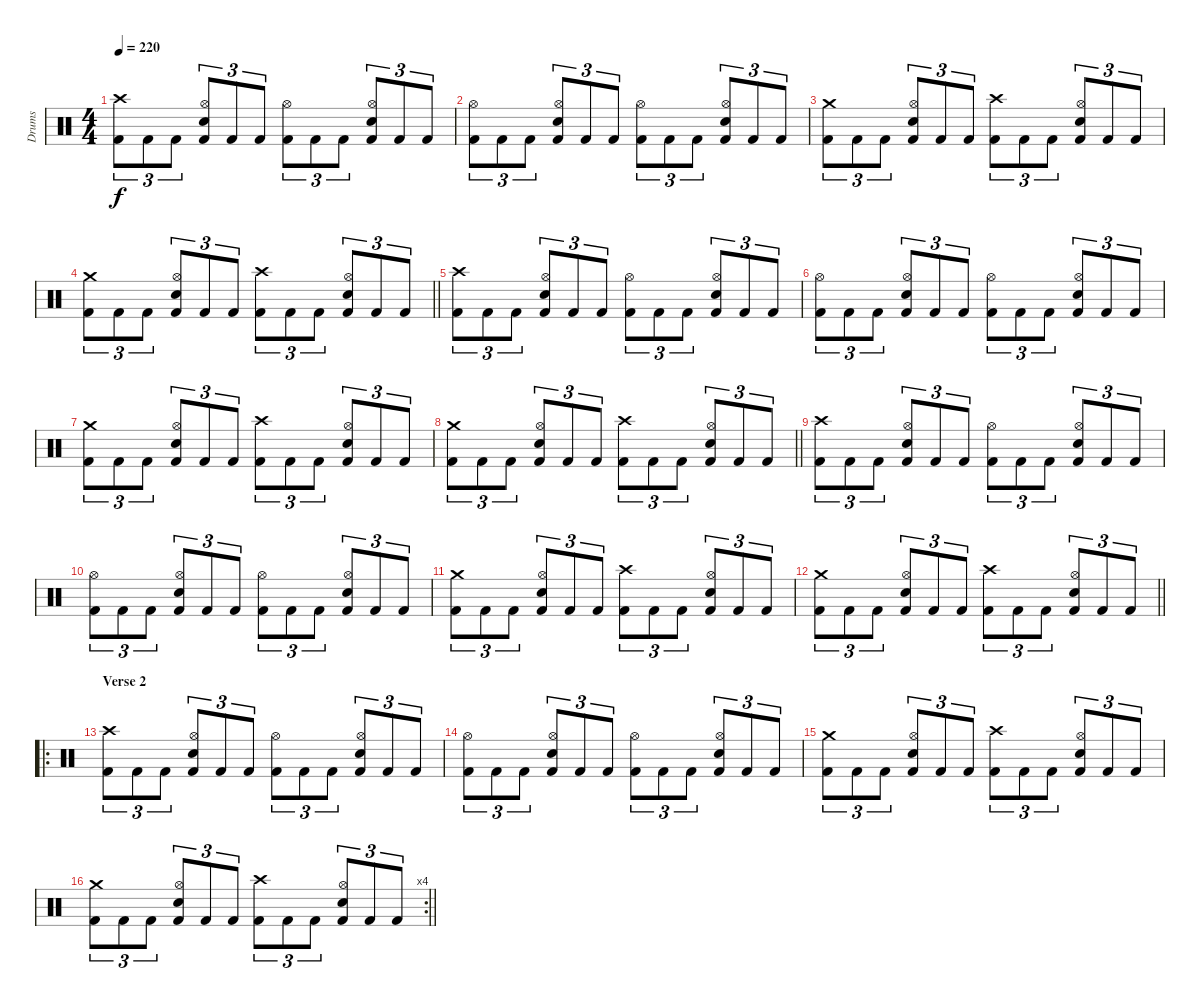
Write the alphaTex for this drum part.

\track ("Drums" "Drums") {instrument percussion}
\staff {score}
\articulation defaults
\ts (4 4)
\tempo 220
\clef neutral
\ks c
("Crash high (hit)" "Kick (hit) 2").8{tu (3 2) dy f} "Kick (hit) 2".8{tu (3 2)} "Kick (hit) 2".8{tu (3 2)} ("Hi-Hat (open)" "Snare (hit) 2" "Kick (hit) 2").8{tu (3 2)} "Kick (hit) 2".8{tu (3 2)} "Kick (hit) 2".8{tu (3 2)} ("Hi-Hat (open)" "Kick (hit) 2").8{tu (3 2)} "Kick (hit) 2".8{tu (3 2)} "Kick (hit) 2".8{tu (3 2)} ("Hi-Hat (open)" "Snare (hit) 2" "Kick (hit) 2").8{tu (3 2)} "Kick (hit) 2".8{tu (3 2)} "Kick (hit) 2".8{tu (3 2)} |
("Hi-Hat (open)" "Kick (hit) 2").8{tu (3 2)} "Kick (hit) 2".8{tu (3 2)} "Kick (hit) 2".8{tu (3 2)} ("Hi-Hat (open)" "Snare (hit) 2" "Kick (hit) 2").8{tu (3 2)} "Kick (hit) 2".8{tu (3 2)} "Kick (hit) 2".8{tu (3 2)} ("Hi-Hat (open)" "Kick (hit) 2").8{tu (3 2)} "Kick (hit) 2".8{tu (3 2)} "Kick (hit) 2".8{tu (3 2)} ("Hi-Hat (open)" "Snare (hit) 2" "Kick (hit) 2").8{tu (3 2)} "Kick (hit) 2".8{tu (3 2)} "Kick (hit) 2".8{tu (3 2)} |
("Crash medium (hit)" "Kick (hit) 2").8{tu (3 2)} "Kick (hit) 2".8{tu (3 2)} "Kick (hit) 2".8{tu (3 2)} ("Hi-Hat (open)" "Snare (hit) 2" "Kick (hit) 2").8{tu (3 2)} "Kick (hit) 2".8{tu (3 2)} "Kick (hit) 2".8{tu (3 2)} ("Crash high (hit)" "Kick (hit) 2").8{tu (3 2)} "Kick (hit) 2".8{tu (3 2)} "Kick (hit) 2".8{tu (3 2)} ("Hi-Hat (open)" "Snare (hit) 2" "Kick (hit) 2").8{tu (3 2)} "Kick (hit) 2".8{tu (3 2)} "Kick (hit) 2".8{tu (3 2)} |
\barLineRight lightlight
("Crash medium (hit)" "Kick (hit) 2").8{tu (3 2)} "Kick (hit) 2".8{tu (3 2)} "Kick (hit) 2".8{tu (3 2)} ("Hi-Hat (open)" "Snare (hit) 2" "Kick (hit) 2").8{tu (3 2)} "Kick (hit) 2".8{tu (3 2)} "Kick (hit) 2".8{tu (3 2)} ("Crash high (hit)" "Kick (hit) 2").8{tu (3 2)} "Kick (hit) 2".8{tu (3 2)} "Kick (hit) 2".8{tu (3 2)} ("Hi-Hat (open)" "Snare (hit) 2" "Kick (hit) 2").8{tu (3 2)} "Kick (hit) 2".8{tu (3 2)} "Kick (hit) 2".8{tu (3 2)} |
("Crash high (hit)" "Kick (hit) 2").8{tu (3 2)} "Kick (hit) 2".8{tu (3 2)} "Kick (hit) 2".8{tu (3 2)} ("Hi-Hat (open)" "Snare (hit) 2" "Kick (hit) 2").8{tu (3 2)} "Kick (hit) 2".8{tu (3 2)} "Kick (hit) 2".8{tu (3 2)} ("Hi-Hat (open)" "Kick (hit) 2").8{tu (3 2)} "Kick (hit) 2".8{tu (3 2)} "Kick (hit) 2".8{tu (3 2)} ("Hi-Hat (open)" "Snare (hit) 2" "Kick (hit) 2").8{tu (3 2)} "Kick (hit) 2".8{tu (3 2)} "Kick (hit) 2".8{tu (3 2)} |
("Hi-Hat (open)" "Kick (hit) 2").8{tu (3 2)} "Kick (hit) 2".8{tu (3 2)} "Kick (hit) 2".8{tu (3 2)} ("Hi-Hat (open)" "Snare (hit) 2" "Kick (hit) 2").8{tu (3 2)} "Kick (hit) 2".8{tu (3 2)} "Kick (hit) 2".8{tu (3 2)} ("Hi-Hat (open)" "Kick (hit) 2").8{tu (3 2)} "Kick (hit) 2".8{tu (3 2)} "Kick (hit) 2".8{tu (3 2)} ("Hi-Hat (open)" "Snare (hit) 2" "Kick (hit) 2").8{tu (3 2)} "Kick (hit) 2".8{tu (3 2)} "Kick (hit) 2".8{tu (3 2)} |
("Crash medium (hit)" "Kick (hit) 2").8{tu (3 2)} "Kick (hit) 2".8{tu (3 2)} "Kick (hit) 2".8{tu (3 2)} ("Hi-Hat (open)" "Snare (hit) 2" "Kick (hit) 2").8{tu (3 2)} "Kick (hit) 2".8{tu (3 2)} "Kick (hit) 2".8{tu (3 2)} ("Crash high (hit)" "Kick (hit) 2").8{tu (3 2)} "Kick (hit) 2".8{tu (3 2)} "Kick (hit) 2".8{tu (3 2)} ("Hi-Hat (open)" "Snare (hit) 2" "Kick (hit) 2").8{tu (3 2)} "Kick (hit) 2".8{tu (3 2)} "Kick (hit) 2".8{tu (3 2)} |
\barLineRight lightlight
("Crash medium (hit)" "Kick (hit) 2").8{tu (3 2)} "Kick (hit) 2".8{tu (3 2)} "Kick (hit) 2".8{tu (3 2)} ("Hi-Hat (open)" "Snare (hit) 2" "Kick (hit) 2").8{tu (3 2)} "Kick (hit) 2".8{tu (3 2)} "Kick (hit) 2".8{tu (3 2)} ("Crash high (hit)" "Kick (hit) 2").8{tu (3 2)} "Kick (hit) 2".8{tu (3 2)} "Kick (hit) 2".8{tu (3 2)} ("Hi-Hat (open)" "Snare (hit) 2" "Kick (hit) 2").8{tu (3 2)} "Kick (hit) 2".8{tu (3 2)} "Kick (hit) 2".8{tu (3 2)} |
("Crash high (hit)" "Kick (hit) 2").8{tu (3 2)} "Kick (hit) 2".8{tu (3 2)} "Kick (hit) 2".8{tu (3 2)} ("Hi-Hat (open)" "Snare (hit) 2" "Kick (hit) 2").8{tu (3 2)} "Kick (hit) 2".8{tu (3 2)} "Kick (hit) 2".8{tu (3 2)} ("Hi-Hat (open)" "Kick (hit) 2").8{tu (3 2)} "Kick (hit) 2".8{tu (3 2)} "Kick (hit) 2".8{tu (3 2)} ("Hi-Hat (open)" "Snare (hit) 2" "Kick (hit) 2").8{tu (3 2)} "Kick (hit) 2".8{tu (3 2)} "Kick (hit) 2".8{tu (3 2)} |
("Hi-Hat (open)" "Kick (hit) 2").8{tu (3 2)} "Kick (hit) 2".8{tu (3 2)} "Kick (hit) 2".8{tu (3 2)} ("Hi-Hat (open)" "Snare (hit) 2" "Kick (hit) 2").8{tu (3 2)} "Kick (hit) 2".8{tu (3 2)} "Kick (hit) 2".8{tu (3 2)} ("Hi-Hat (open)" "Kick (hit) 2").8{tu (3 2)} "Kick (hit) 2".8{tu (3 2)} "Kick (hit) 2".8{tu (3 2)} ("Hi-Hat (open)" "Snare (hit) 2" "Kick (hit) 2").8{tu (3 2)} "Kick (hit) 2".8{tu (3 2)} "Kick (hit) 2".8{tu (3 2)} |
("Crash medium (hit)" "Kick (hit) 2").8{tu (3 2)} "Kick (hit) 2".8{tu (3 2)} "Kick (hit) 2".8{tu (3 2)} ("Hi-Hat (open)" "Snare (hit) 2" "Kick (hit) 2").8{tu (3 2)} "Kick (hit) 2".8{tu (3 2)} "Kick (hit) 2".8{tu (3 2)} ("Crash high (hit)" "Kick (hit) 2").8{tu (3 2)} "Kick (hit) 2".8{tu (3 2)} "Kick (hit) 2".8{tu (3 2)} ("Hi-Hat (open)" "Snare (hit) 2" "Kick (hit) 2").8{tu (3 2)} "Kick (hit) 2".8{tu (3 2)} "Kick (hit) 2".8{tu (3 2)} |
\barLineRight lightlight
("Crash medium (hit)" "Kick (hit) 2").8{tu (3 2)} "Kick (hit) 2".8{tu (3 2)} "Kick (hit) 2".8{tu (3 2)} ("Hi-Hat (open)" "Snare (hit) 2" "Kick (hit) 2").8{tu (3 2)} "Kick (hit) 2".8{tu (3 2)} "Kick (hit) 2".8{tu (3 2)} ("Crash high (hit)" "Kick (hit) 2").8{tu (3 2)} "Kick (hit) 2".8{tu (3 2)} "Kick (hit) 2".8{tu (3 2)} ("Hi-Hat (open)" "Snare (hit) 2" "Kick (hit) 2").8{tu (3 2)} "Kick (hit) 2".8{tu (3 2)} "Kick (hit) 2".8{tu (3 2)} |
\ro
\section ("" "Verse 2")
("Crash high (hit)" "Kick (hit) 2").8{tu (3 2)} "Kick (hit) 2".8{tu (3 2)} "Kick (hit) 2".8{tu (3 2)} ("Hi-Hat (open)" "Snare (hit) 2" "Kick (hit) 2").8{tu (3 2)} "Kick (hit) 2".8{tu (3 2)} "Kick (hit) 2".8{tu (3 2)} ("Hi-Hat (open)" "Kick (hit) 2").8{tu (3 2)} "Kick (hit) 2".8{tu (3 2)} "Kick (hit) 2".8{tu (3 2)} ("Hi-Hat (open)" "Snare (hit) 2" "Kick (hit) 2").8{tu (3 2)} "Kick (hit) 2".8{tu (3 2)} "Kick (hit) 2".8{tu (3 2)} |
("Hi-Hat (open)" "Kick (hit) 2").8{tu (3 2)} "Kick (hit) 2".8{tu (3 2)} "Kick (hit) 2".8{tu (3 2)} ("Hi-Hat (open)" "Snare (hit) 2" "Kick (hit) 2").8{tu (3 2)} "Kick (hit) 2".8{tu (3 2)} "Kick (hit) 2".8{tu (3 2)} ("Hi-Hat (open)" "Kick (hit) 2").8{tu (3 2)} "Kick (hit) 2".8{tu (3 2)} "Kick (hit) 2".8{tu (3 2)} ("Hi-Hat (open)" "Snare (hit) 2" "Kick (hit) 2").8{tu (3 2)} "Kick (hit) 2".8{tu (3 2)} "Kick (hit) 2".8{tu (3 2)} |
("Crash medium (hit)" "Kick (hit) 2").8{tu (3 2)} "Kick (hit) 2".8{tu (3 2)} "Kick (hit) 2".8{tu (3 2)} ("Hi-Hat (open)" "Snare (hit) 2" "Kick (hit) 2").8{tu (3 2)} "Kick (hit) 2".8{tu (3 2)} "Kick (hit) 2".8{tu (3 2)} ("Crash high (hit)" "Kick (hit) 2").8{tu (3 2)} "Kick (hit) 2".8{tu (3 2)} "Kick (hit) 2".8{tu (3 2)} ("Hi-Hat (open)" "Snare (hit) 2" "Kick (hit) 2").8{tu (3 2)} "Kick (hit) 2".8{tu (3 2)} "Kick (hit) 2".8{tu (3 2)} |
\rc 4
\barLineRight lightlight
("Crash medium (hit)" "Kick (hit) 2").8{tu (3 2)} "Kick (hit) 2".8{tu (3 2)} "Kick (hit) 2".8{tu (3 2)} ("Hi-Hat (open)" "Snare (hit) 2" "Kick (hit) 2").8{tu (3 2)} "Kick (hit) 2".8{tu (3 2)} "Kick (hit) 2".8{tu (3 2)} ("Crash high (hit)" "Kick (hit) 2").8{tu (3 2)} "Kick (hit) 2".8{tu (3 2)} "Kick (hit) 2".8{tu (3 2)} ("Hi-Hat (open)" "Snare (hit) 2" "Kick (hit) 2").8{tu (3 2)} "Kick (hit) 2".8{tu (3 2)} "Kick (hit) 2".8{tu (3 2)}
